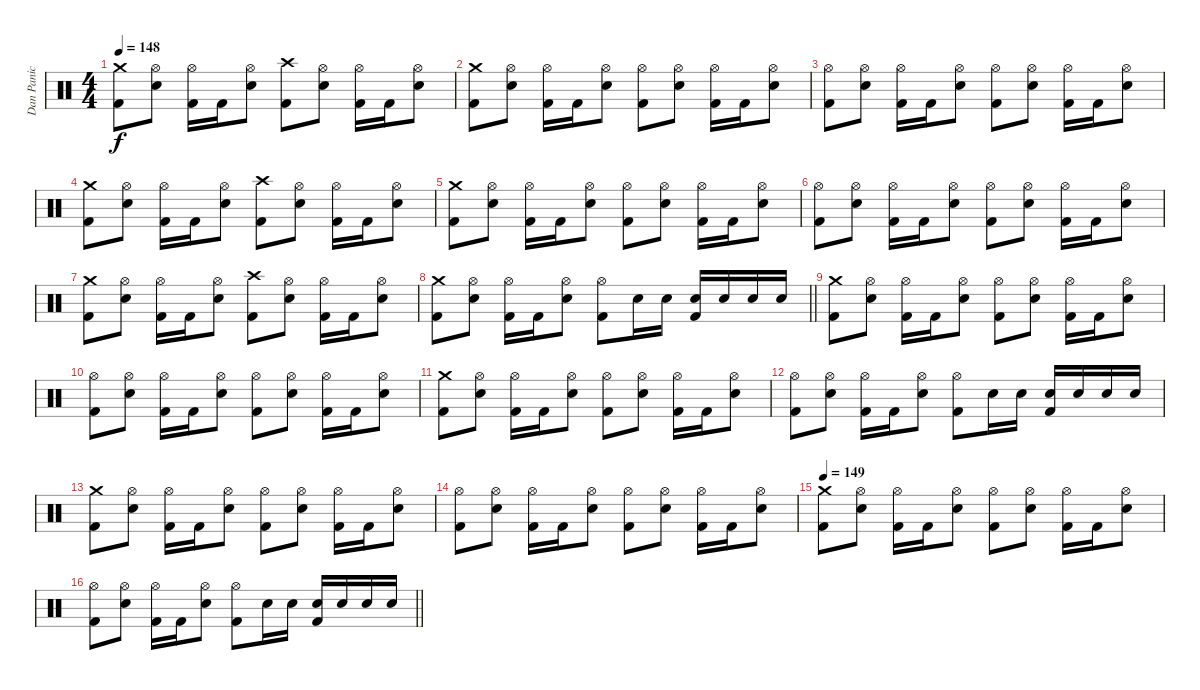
\track ("Dan Panic" "Dan Panic") {instrument percussion}
\staff {score}
\articulation defaults
\ts (4 4)
\tempo 148
\clef neutral
\ks c
("Crash medium (hit)" "Kick (hit) 2").8{dy f} ("Hi-Hat (open)" "Electric Snare (hit)").8 ("Hi-Hat (open)" "Kick (hit) 2").16 "Kick (hit) 2".16 ("Hi-Hat (open)" "Electric Snare (hit)").8 ("Crash high (hit)" "Kick (hit) 2").8 ("Hi-Hat (open)" "Electric Snare (hit)").8 ("Hi-Hat (open)" "Kick (hit) 2").16 "Kick (hit) 2".16 ("Hi-Hat (open)" "Electric Snare (hit)").8 |
("Crash medium (hit)" "Kick (hit) 2").8 ("Hi-Hat (open)" "Electric Snare (hit)").8 ("Hi-Hat (open)" "Kick (hit) 2").16 "Kick (hit) 2".16 ("Hi-Hat (open)" "Electric Snare (hit)").8 ("Hi-Hat (open)" "Kick (hit) 2").8 ("Hi-Hat (open)" "Electric Snare (hit)").8 ("Hi-Hat (open)" "Kick (hit) 2").16 "Kick (hit) 2".16 ("Hi-Hat (open)" "Electric Snare (hit)").8 |
("Hi-Hat (open)" "Kick (hit) 2").8 ("Hi-Hat (open)" "Electric Snare (hit)").8 ("Hi-Hat (open)" "Kick (hit) 2").16 "Kick (hit) 2".16 ("Hi-Hat (open)" "Electric Snare (hit)").8 ("Hi-Hat (open)" "Kick (hit) 2").8 ("Hi-Hat (open)" "Electric Snare (hit)").8 ("Hi-Hat (open)" "Kick (hit) 2").16 "Kick (hit) 2".16 ("Hi-Hat (open)" "Electric Snare (hit)").8 |
("Crash medium (hit)" "Kick (hit) 2").8 ("Hi-Hat (open)" "Electric Snare (hit)").8 ("Hi-Hat (open)" "Kick (hit) 2").16 "Kick (hit) 2".16 ("Hi-Hat (open)" "Electric Snare (hit)").8 ("Crash high (hit)" "Kick (hit) 2").8 ("Hi-Hat (open)" "Electric Snare (hit)").8 ("Hi-Hat (open)" "Kick (hit) 2").16 "Kick (hit) 2".16 ("Hi-Hat (open)" "Electric Snare (hit)").8 |
("Crash medium (hit)" "Kick (hit) 2").8 ("Hi-Hat (open)" "Electric Snare (hit)").8 ("Hi-Hat (open)" "Kick (hit) 2").16 "Kick (hit) 2".16 ("Hi-Hat (open)" "Electric Snare (hit)").8 ("Hi-Hat (open)" "Kick (hit) 2").8 ("Hi-Hat (open)" "Electric Snare (hit)").8 ("Hi-Hat (open)" "Kick (hit) 2").16 "Kick (hit) 2".16 ("Hi-Hat (open)" "Electric Snare (hit)").8 |
("Hi-Hat (open)" "Kick (hit) 2").8 ("Hi-Hat (open)" "Electric Snare (hit)").8 ("Hi-Hat (open)" "Kick (hit) 2").16 "Kick (hit) 2".16 ("Hi-Hat (open)" "Electric Snare (hit)").8 ("Hi-Hat (open)" "Kick (hit) 2").8 ("Hi-Hat (open)" "Electric Snare (hit)").8 ("Hi-Hat (open)" "Kick (hit) 2").16 "Kick (hit) 2".16 ("Hi-Hat (open)" "Electric Snare (hit)").8 |
("Crash medium (hit)" "Kick (hit) 2").8 ("Hi-Hat (open)" "Electric Snare (hit)").8 ("Hi-Hat (open)" "Kick (hit) 2").16 "Kick (hit) 2".16 ("Hi-Hat (open)" "Electric Snare (hit)").8 ("Crash high (hit)" "Kick (hit) 2").8 ("Hi-Hat (open)" "Electric Snare (hit)").8 ("Hi-Hat (open)" "Kick (hit) 2").16 "Kick (hit) 2".16 ("Hi-Hat (open)" "Electric Snare (hit)").8 |
\barLineRight lightlight
("Crash medium (hit)" "Kick (hit) 2").8 ("Hi-Hat (open)" "Electric Snare (hit)").8 ("Hi-Hat (open)" "Kick (hit) 2").16 "Kick (hit) 2".16 ("Hi-Hat (open)" "Electric Snare (hit)").8 ("Hi-Hat (open)" "Kick (hit) 2").8 "Electric Snare (hit)".16 "Electric Snare (hit)".16 ("Electric Snare (hit)" "Kick (hit) 2").16 "Electric Snare (hit)".16 "Electric Snare (hit)".16 "Electric Snare (hit)".16 |
("Crash medium (hit)" "Kick (hit) 2").8 ("Hi-Hat (open)" "Electric Snare (hit)").8 ("Hi-Hat (open)" "Kick (hit) 2").16 "Kick (hit) 2".16 ("Hi-Hat (open)" "Electric Snare (hit)").8 ("Hi-Hat (open)" "Kick (hit) 2").8 ("Hi-Hat (open)" "Electric Snare (hit)").8 ("Hi-Hat (open)" "Kick (hit) 2").16 "Kick (hit) 2".16 ("Hi-Hat (open)" "Electric Snare (hit)").8 |
("Hi-Hat (open)" "Kick (hit) 2").8 ("Hi-Hat (open)" "Electric Snare (hit)").8 ("Hi-Hat (open)" "Kick (hit) 2").16 "Kick (hit) 2".16 ("Hi-Hat (open)" "Electric Snare (hit)").8 ("Hi-Hat (open)" "Kick (hit) 2").8 ("Hi-Hat (open)" "Electric Snare (hit)").8 ("Hi-Hat (open)" "Kick (hit) 2").16 "Kick (hit) 2".16 ("Hi-Hat (open)" "Electric Snare (hit)").8 |
("Crash medium (hit)" "Kick (hit) 2").8 ("Hi-Hat (open)" "Electric Snare (hit)").8 ("Hi-Hat (open)" "Kick (hit) 2").16 "Kick (hit) 2".16 ("Hi-Hat (open)" "Electric Snare (hit)").8 ("Hi-Hat (open)" "Kick (hit) 2").8 ("Hi-Hat (open)" "Electric Snare (hit)").8 ("Hi-Hat (open)" "Kick (hit) 2").16 "Kick (hit) 2".16 ("Hi-Hat (open)" "Electric Snare (hit)").8 |
("Hi-Hat (open)" "Kick (hit) 2").8 ("Hi-Hat (open)" "Electric Snare (hit)").8 ("Hi-Hat (open)" "Kick (hit) 2").16 "Kick (hit) 2".16 ("Hi-Hat (open)" "Electric Snare (hit)").8 ("Hi-Hat (open)" "Kick (hit) 2").8 "Electric Snare (hit)".16 "Electric Snare (hit)".16 ("Electric Snare (hit)" "Kick (hit) 2").16 "Electric Snare (hit)".16 "Electric Snare (hit)".16 "Electric Snare (hit)".16 |
("Crash medium (hit)" "Kick (hit) 2").8 ("Hi-Hat (open)" "Electric Snare (hit)").8 ("Hi-Hat (open)" "Kick (hit) 2").16 "Kick (hit) 2".16 ("Hi-Hat (open)" "Electric Snare (hit)").8 ("Hi-Hat (open)" "Kick (hit) 2").8 ("Hi-Hat (open)" "Electric Snare (hit)").8 ("Hi-Hat (open)" "Kick (hit) 2").16 "Kick (hit) 2".16 ("Hi-Hat (open)" "Electric Snare (hit)").8 |
("Hi-Hat (open)" "Kick (hit) 2").8 ("Hi-Hat (open)" "Electric Snare (hit)").8 ("Hi-Hat (open)" "Kick (hit) 2").16 "Kick (hit) 2".16 ("Hi-Hat (open)" "Electric Snare (hit)").8 ("Hi-Hat (open)" "Kick (hit) 2").8 ("Hi-Hat (open)" "Electric Snare (hit)").8 ("Hi-Hat (open)" "Kick (hit) 2").16 "Kick (hit) 2".16 ("Hi-Hat (open)" "Electric Snare (hit)").8 |
\tempo 149
("Crash medium (hit)" "Kick (hit) 2").8 ("Hi-Hat (open)" "Electric Snare (hit)").8 ("Hi-Hat (open)" "Kick (hit) 2").16 "Kick (hit) 2".16 ("Hi-Hat (open)" "Electric Snare (hit)").8 ("Hi-Hat (open)" "Kick (hit) 2").8 ("Hi-Hat (open)" "Electric Snare (hit)").8 ("Hi-Hat (open)" "Kick (hit) 2").16 "Kick (hit) 2".16 ("Hi-Hat (open)" "Electric Snare (hit)").8 |
\barLineRight lightlight
("Hi-Hat (open)" "Kick (hit) 2").8 ("Hi-Hat (open)" "Electric Snare (hit)").8 ("Hi-Hat (open)" "Kick (hit) 2").16 "Kick (hit) 2".16 ("Hi-Hat (open)" "Electric Snare (hit)").8 ("Hi-Hat (open)" "Kick (hit) 2").8 "Electric Snare (hit)".16 "Electric Snare (hit)".16 ("Electric Snare (hit)" "Kick (hit) 2").16 "Electric Snare (hit)".16 "Electric Snare (hit)".16 "Electric Snare (hit)".16
